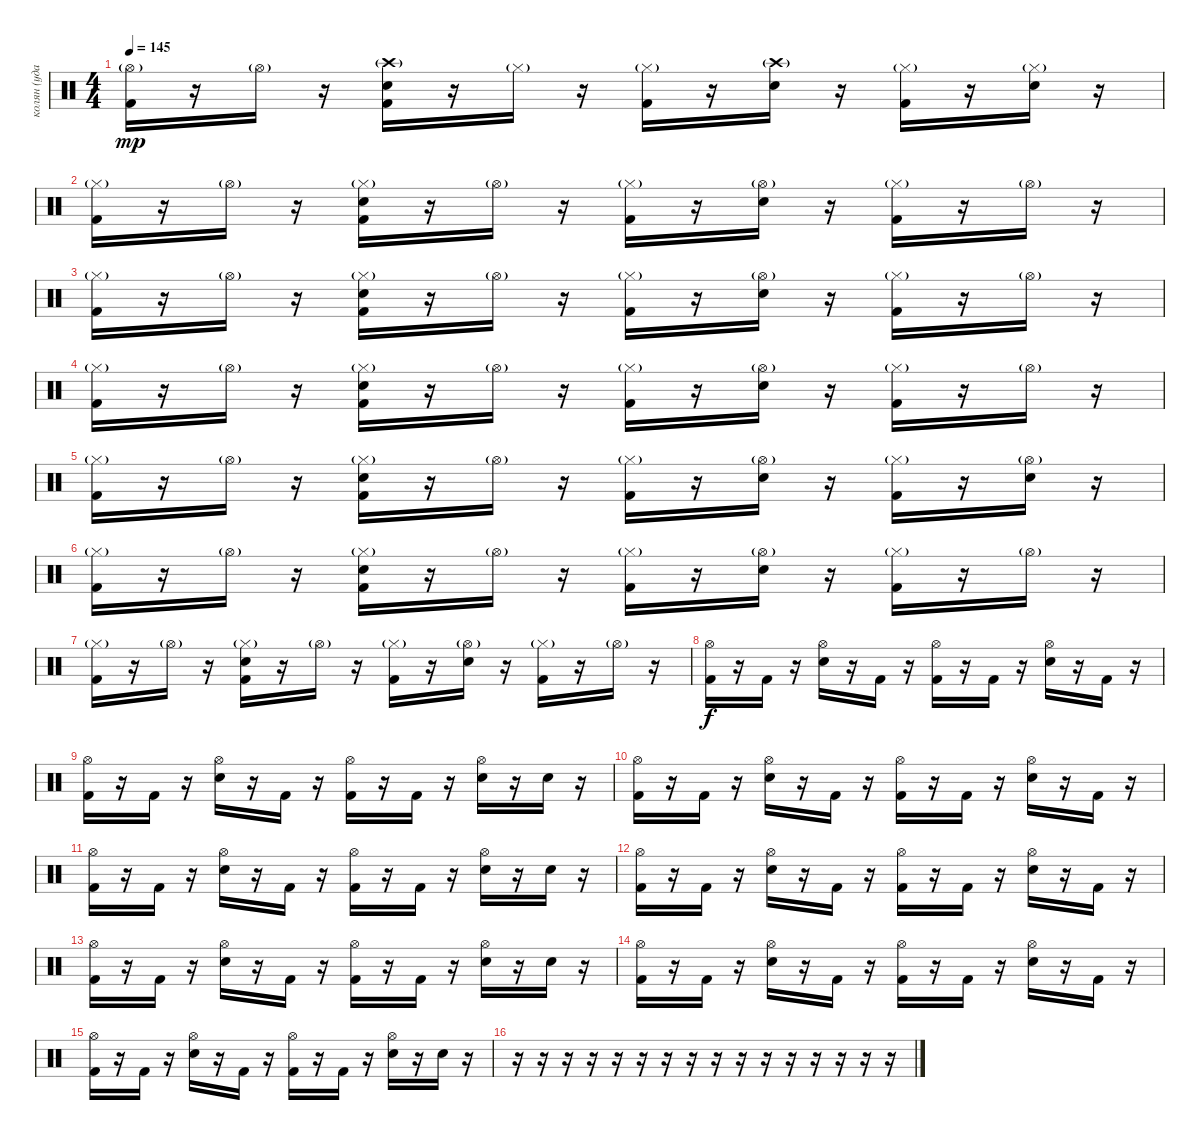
\track ("колян (ударные)" "колян (уда") {instrument percussion}
\staff {score}
\articulation defaults
\ts (4 4)
\tempo 145
\clef neutral
\ks c
("Kick (hit) 2" "Hi-Hat (open)"{g}).16{dy mp} r.16 "Hi-Hat (open)"{g}.16 r.16 ("Snare (hit) 2" "Kick (hit) 2" "Crash high (hit)"{g}).16 r.16 "Hi-Hat (closed)"{g}.16 r.16 ("Kick (hit) 2" "Hi-Hat (closed)"{g}).16 r.16 ("Snare (hit) 2" "Crash high (hit)"{g}).16 r.16 ("Kick (hit) 2" "Hi-Hat (closed)"{g}).16 r.16 ("Snare (hit) 2" "Hi-Hat (closed)"{g}).16 r.16 |
("Kick (hit) 2" "Hi-Hat (closed)"{g}).16 r.16 "Hi-Hat (open)"{g}.16 r.16 ("Snare (hit) 2" "Kick (hit) 2" "Hi-Hat (closed)"{g}).16 r.16 "Hi-Hat (open)"{g}.16 r.16 ("Kick (hit) 2" "Hi-Hat (closed)"{g}).16 r.16 ("Snare (hit) 2" "Hi-Hat (open)"{g}).16 r.16 ("Kick (hit) 2" "Hi-Hat (closed)"{g}).16 r.16 "Hi-Hat (open)"{g}.16 r.16 |
("Kick (hit) 2" "Hi-Hat (closed)"{g}).16 r.16 "Hi-Hat (open)"{g}.16 r.16 ("Snare (hit) 2" "Kick (hit) 2" "Hi-Hat (closed)"{g}).16 r.16 "Hi-Hat (open)"{g}.16 r.16 ("Kick (hit) 2" "Hi-Hat (closed)"{g}).16 r.16 ("Snare (hit) 2" "Hi-Hat (open)"{g}).16 r.16 ("Kick (hit) 2" "Hi-Hat (closed)"{g}).16 r.16 "Hi-Hat (open)"{g}.16 r.16 |
("Kick (hit) 2" "Hi-Hat (closed)"{g}).16 r.16 "Hi-Hat (open)"{g}.16 r.16 ("Snare (hit) 2" "Kick (hit) 2" "Hi-Hat (closed)"{g}).16 r.16 "Hi-Hat (open)"{g}.16 r.16 ("Kick (hit) 2" "Hi-Hat (closed)"{g}).16 r.16 ("Snare (hit) 2" "Hi-Hat (open)"{g}).16 r.16 ("Kick (hit) 2" "Hi-Hat (closed)"{g}).16 r.16 "Hi-Hat (open)"{g}.16 r.16 |
("Kick (hit) 2" "Hi-Hat (closed)"{g}).16 r.16 "Hi-Hat (open)"{g}.16 r.16 ("Snare (hit) 2" "Kick (hit) 2" "Hi-Hat (closed)"{g}).16 r.16 "Hi-Hat (open)"{g}.16 r.16 ("Kick (hit) 2" "Hi-Hat (closed)"{g}).16 r.16 ("Snare (hit) 2" "Hi-Hat (open)"{g}).16 r.16 ("Kick (hit) 2" "Hi-Hat (closed)"{g}).16 r.16 ("Snare (hit) 2" "Hi-Hat (open)"{g}).16 r.16 |
("Kick (hit) 2" "Hi-Hat (closed)"{g}).16 r.16 "Hi-Hat (open)"{g}.16 r.16 ("Snare (hit) 2" "Kick (hit) 2" "Hi-Hat (closed)"{g}).16 r.16 "Hi-Hat (open)"{g}.16 r.16 ("Kick (hit) 2" "Hi-Hat (closed)"{g}).16 r.16 ("Snare (hit) 2" "Hi-Hat (open)"{g}).16 r.16 ("Kick (hit) 2" "Hi-Hat (closed)"{g}).16 r.16 "Hi-Hat (open)"{g}.16 r.16 |
("Kick (hit) 2" "Hi-Hat (closed)"{g}).16 r.16 "Hi-Hat (open)"{g}.16 r.16 ("Snare (hit) 2" "Kick (hit) 2" "Hi-Hat (closed)"{g}).16 r.16 "Hi-Hat (open)"{g}.16 r.16 ("Kick (hit) 2" "Hi-Hat (closed)"{g}).16 r.16 ("Snare (hit) 2" "Hi-Hat (open)"{g}).16 r.16 ("Kick (hit) 2" "Hi-Hat (closed)"{g}).16 r.16 "Hi-Hat (open)"{g}.16 r.16 |
("Kick (hit) 2" "Hi-Hat (open)").16{dy f} r.16 "Kick (hit) 2".16 r.16 ("Snare (hit) 2" "Hi-Hat (open)").16 r.16 "Kick (hit) 2".16 r.16 ("Kick (hit) 2" "Hi-Hat (open)").16 r.16 "Kick (hit) 2".16 r.16 ("Snare (hit) 2" "Hi-Hat (open)").16 r.16 "Kick (hit) 2".16 r.16 |
("Kick (hit) 2" "Hi-Hat (open)").16 r.16 "Kick (hit) 2".16 r.16 ("Snare (hit) 2" "Hi-Hat (open)").16 r.16 "Kick (hit) 2".16 r.16 ("Kick (hit) 2" "Hi-Hat (open)").16 r.16 "Kick (hit) 2".16 r.16 ("Snare (hit) 2" "Hi-Hat (open)").16 r.16 "Snare (hit) 2".16 r.16 |
("Kick (hit) 2" "Hi-Hat (open)").16 r.16 "Kick (hit) 2".16 r.16 ("Snare (hit) 2" "Hi-Hat (open)").16 r.16 "Kick (hit) 2".16 r.16 ("Kick (hit) 2" "Hi-Hat (open)").16 r.16 "Kick (hit) 2".16 r.16 ("Snare (hit) 2" "Hi-Hat (open)").16 r.16 "Kick (hit) 2".16 r.16 |
("Kick (hit) 2" "Hi-Hat (open)").16 r.16 "Kick (hit) 2".16 r.16 ("Snare (hit) 2" "Hi-Hat (open)").16 r.16 "Kick (hit) 2".16 r.16 ("Kick (hit) 2" "Hi-Hat (open)").16 r.16 "Kick (hit) 2".16 r.16 ("Snare (hit) 2" "Hi-Hat (open)").16 r.16 "Snare (hit) 2".16 r.16 |
("Kick (hit) 2" "Hi-Hat (open)").16 r.16 "Kick (hit) 2".16 r.16 ("Snare (hit) 2" "Hi-Hat (open)").16 r.16 "Kick (hit) 2".16 r.16 ("Kick (hit) 2" "Hi-Hat (open)").16 r.16 "Kick (hit) 2".16 r.16 ("Snare (hit) 2" "Hi-Hat (open)").16 r.16 "Kick (hit) 2".16 r.16 |
("Kick (hit) 2" "Hi-Hat (open)").16 r.16 "Kick (hit) 2".16 r.16 ("Snare (hit) 2" "Hi-Hat (open)").16 r.16 "Kick (hit) 2".16 r.16 ("Kick (hit) 2" "Hi-Hat (open)").16 r.16 "Kick (hit) 2".16 r.16 ("Snare (hit) 2" "Hi-Hat (open)").16 r.16 "Snare (hit) 2".16 r.16 |
("Kick (hit) 2" "Hi-Hat (open)").16 r.16 "Kick (hit) 2".16 r.16 ("Snare (hit) 2" "Hi-Hat (open)").16 r.16 "Kick (hit) 2".16 r.16 ("Kick (hit) 2" "Hi-Hat (open)").16 r.16 "Kick (hit) 2".16 r.16 ("Snare (hit) 2" "Hi-Hat (open)").16 r.16 "Kick (hit) 2".16 r.16 |
("Kick (hit) 2" "Hi-Hat (open)").16 r.16 "Kick (hit) 2".16 r.16 ("Snare (hit) 2" "Hi-Hat (open)").16 r.16 "Kick (hit) 2".16 r.16 ("Kick (hit) 2" "Hi-Hat (open)").16 r.16 "Kick (hit) 2".16 r.16 ("Snare (hit) 2" "Hi-Hat (open)").16 r.16 "Snare (hit) 2".16 r.16 |
r.16 r.16 r.16 r.16 r.16 r.16 r.16 r.16 r.16 r.16 r.16 r.16 r.16 r.16 r.16 r.16
